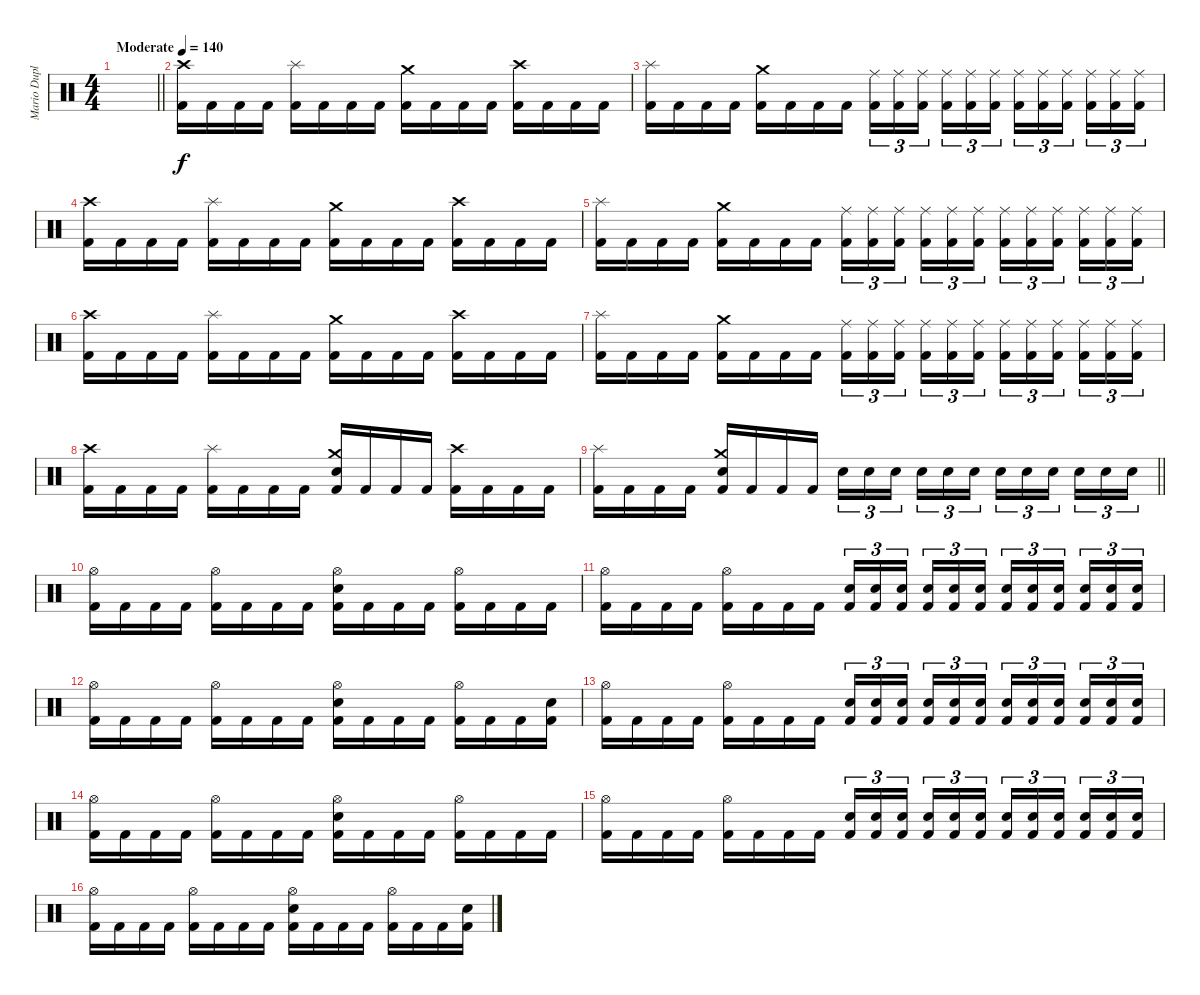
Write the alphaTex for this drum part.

\track ("Mario Duplantier" "Mario Dupl") {instrument percussion}
\staff {score}
\articulation defaults
\ts (4 4)
\tempo (140 "Moderate")
\clef neutral
\barLineRight lightlight
\ks c
|
\section ("" "")
("Crash high (hit)" "Kick (hit) 2").16 "Kick (hit) 2".16 "Kick (hit) 2".16 "Kick (hit) 2".16 ("Splash (hit)" "Kick (hit) 2").16 "Kick (hit) 2".16 "Kick (hit) 2".16 "Kick (hit) 2".16 ("Crash medium (hit)" "Kick (hit) 2").16 "Kick (hit) 2".16 "Kick (hit) 2".16 "Kick (hit) 2".16 ("Crash high (hit)" "Kick (hit) 2").16 "Kick (hit) 2".16 "Kick (hit) 2".16 "Kick (hit) 2".16 |
("Splash (hit)" "Kick (hit) 2").16 "Kick (hit) 2".16 "Kick (hit) 2".16 "Kick (hit) 2".16 ("Crash medium (hit)" "Kick (hit) 2").16 "Kick (hit) 2".16 "Kick (hit) 2".16 "Kick (hit) 2".16 ("Ride (middle)" "Kick (hit) 2").16{tu (3 2)} ("Ride (middle)" "Kick (hit) 2").16{tu (3 2)} ("Ride (middle)" "Kick (hit) 2").16{tu (3 2) beam splitsecondary} ("Ride (middle)" "Kick (hit) 2").16{tu (3 2)} ("Ride (middle)" "Kick (hit) 2").16{tu (3 2)} ("Ride (middle)" "Kick (hit) 2").16{tu (3 2)} ("Ride (middle)" "Kick (hit) 2").16{tu (3 2)} ("Ride (middle)" "Kick (hit) 2").16{tu (3 2)} ("Ride (middle)" "Kick (hit) 2").16{tu (3 2) beam splitsecondary} ("Ride (middle)" "Kick (hit) 2").16{tu (3 2)} ("Ride (middle)" "Kick (hit) 2").16{tu (3 2)} ("Ride (middle)" "Kick (hit) 2").16{tu (3 2)} |
("Crash high (hit)" "Kick (hit) 2").16 "Kick (hit) 2".16 "Kick (hit) 2".16 "Kick (hit) 2".16 ("Splash (hit)" "Kick (hit) 2").16 "Kick (hit) 2".16 "Kick (hit) 2".16 "Kick (hit) 2".16 ("Crash medium (hit)" "Kick (hit) 2").16 "Kick (hit) 2".16 "Kick (hit) 2".16 "Kick (hit) 2".16 ("Crash high (hit)" "Kick (hit) 2").16 "Kick (hit) 2".16 "Kick (hit) 2".16 "Kick (hit) 2".16 |
("Splash (hit)" "Kick (hit) 2").16 "Kick (hit) 2".16 "Kick (hit) 2".16 "Kick (hit) 2".16 ("Crash medium (hit)" "Kick (hit) 2").16 "Kick (hit) 2".16 "Kick (hit) 2".16 "Kick (hit) 2".16 ("Ride (middle)" "Kick (hit) 2").16{tu (3 2)} ("Ride (middle)" "Kick (hit) 2").16{tu (3 2)} ("Ride (middle)" "Kick (hit) 2").16{tu (3 2) beam splitsecondary} ("Ride (middle)" "Kick (hit) 2").16{tu (3 2)} ("Ride (middle)" "Kick (hit) 2").16{tu (3 2)} ("Ride (middle)" "Kick (hit) 2").16{tu (3 2)} ("Ride (middle)" "Kick (hit) 2").16{tu (3 2)} ("Ride (middle)" "Kick (hit) 2").16{tu (3 2)} ("Ride (middle)" "Kick (hit) 2").16{tu (3 2) beam splitsecondary} ("Ride (middle)" "Kick (hit) 2").16{tu (3 2)} ("Ride (middle)" "Kick (hit) 2").16{tu (3 2)} ("Ride (middle)" "Kick (hit) 2").16{tu (3 2)} |
("Crash high (hit)" "Kick (hit) 2").16 "Kick (hit) 2".16 "Kick (hit) 2".16 "Kick (hit) 2".16 ("Splash (hit)" "Kick (hit) 2").16 "Kick (hit) 2".16 "Kick (hit) 2".16 "Kick (hit) 2".16 ("Crash medium (hit)" "Kick (hit) 2").16 "Kick (hit) 2".16 "Kick (hit) 2".16 "Kick (hit) 2".16 ("Crash high (hit)" "Kick (hit) 2").16 "Kick (hit) 2".16 "Kick (hit) 2".16 "Kick (hit) 2".16 |
("Splash (hit)" "Kick (hit) 2").16 "Kick (hit) 2".16 "Kick (hit) 2".16 "Kick (hit) 2".16 ("Crash medium (hit)" "Kick (hit) 2").16 "Kick (hit) 2".16 "Kick (hit) 2".16 "Kick (hit) 2".16 ("Ride (middle)" "Kick (hit) 2").16{tu (3 2)} ("Ride (middle)" "Kick (hit) 2").16{tu (3 2)} ("Ride (middle)" "Kick (hit) 2").16{tu (3 2) beam splitsecondary} ("Ride (middle)" "Kick (hit) 2").16{tu (3 2)} ("Ride (middle)" "Kick (hit) 2").16{tu (3 2)} ("Ride (middle)" "Kick (hit) 2").16{tu (3 2)} ("Ride (middle)" "Kick (hit) 2").16{tu (3 2)} ("Ride (middle)" "Kick (hit) 2").16{tu (3 2)} ("Ride (middle)" "Kick (hit) 2").16{tu (3 2) beam splitsecondary} ("Ride (middle)" "Kick (hit) 2").16{tu (3 2)} ("Ride (middle)" "Kick (hit) 2").16{tu (3 2)} ("Ride (middle)" "Kick (hit) 2").16{tu (3 2)} |
("Crash high (hit)" "Kick (hit) 2").16 "Kick (hit) 2".16 "Kick (hit) 2".16 "Kick (hit) 2".16 ("Splash (hit)" "Kick (hit) 2").16 "Kick (hit) 2".16 "Kick (hit) 2".16 "Kick (hit) 2".16 ("Crash medium (hit)" "Electric Snare (hit)" "Kick (hit) 2").16 "Kick (hit) 2".16 "Kick (hit) 2".16 "Kick (hit) 2".16 ("Crash high (hit)" "Kick (hit) 2").16 "Kick (hit) 2".16 "Kick (hit) 2".16 "Kick (hit) 2".16 |
\barLineRight lightlight
("Splash (hit)" "Kick (hit) 2").16 "Kick (hit) 2".16 "Kick (hit) 2".16 "Kick (hit) 2".16 ("Crash medium (hit)" "Electric Snare (hit)" "Kick (hit) 2").16 "Kick (hit) 2".16 "Kick (hit) 2".16 "Kick (hit) 2".16 "Snare (hit) 2".16{tu (3 2)} "Snare (hit) 2".16{tu (3 2)} "Snare (hit) 2".16{tu (3 2) beam splitsecondary} "Snare (hit) 2".16{tu (3 2)} "Snare (hit) 2".16{tu (3 2)} "Snare (hit) 2".16{tu (3 2)} "Snare (hit) 2".16{tu (3 2)} "Snare (hit) 2".16{tu (3 2)} "Snare (hit) 2".16{tu (3 2) beam splitsecondary} "Snare (hit) 2".16{tu (3 2)} "Snare (hit) 2".16{tu (3 2)} "Snare (hit) 2".16{tu (3 2)} |
\section ("" "")
("Hi-Hat (open)" "Kick (hit) 2").16 "Kick (hit) 2".16 "Kick (hit) 2".16 "Kick (hit) 2".16 ("Hi-Hat (open)" "Kick (hit) 2").16 "Kick (hit) 2".16 "Kick (hit) 2".16 "Kick (hit) 2".16 ("Hi-Hat (open)" "Electric Snare (hit)" "Kick (hit) 2").16 "Kick (hit) 2".16 "Kick (hit) 2".16 "Kick (hit) 2".16 ("Hi-Hat (open)" "Kick (hit) 2").16 "Kick (hit) 2".16 "Kick (hit) 2".16 "Kick (hit) 2".16 |
("Hi-Hat (open)" "Kick (hit) 2").16 "Kick (hit) 2".16 "Kick (hit) 2".16 "Kick (hit) 2".16 ("Hi-Hat (open)" "Kick (hit) 2").16 "Kick (hit) 2".16 "Kick (hit) 2".16 "Kick (hit) 2".16 ("Snare (hit) 2" "Kick (hit) 2").16{tu (3 2)} ("Snare (hit) 2" "Kick (hit) 2").16{tu (3 2)} ("Snare (hit) 2" "Kick (hit) 2").16{tu (3 2) beam splitsecondary} ("Snare (hit) 2" "Kick (hit) 2").16{tu (3 2)} ("Snare (hit) 2" "Kick (hit) 2").16{tu (3 2)} ("Snare (hit) 2" "Kick (hit) 2").16{tu (3 2)} ("Snare (hit) 2" "Kick (hit) 2").16{tu (3 2)} ("Snare (hit) 2" "Kick (hit) 2").16{tu (3 2)} ("Snare (hit) 2" "Kick (hit) 2").16{tu (3 2) beam splitsecondary} ("Snare (hit) 2" "Kick (hit) 2").16{tu (3 2)} ("Snare (hit) 2" "Kick (hit) 2").16{tu (3 2)} ("Snare (hit) 2" "Kick (hit) 2").16{tu (3 2)} |
("Hi-Hat (open)" "Kick (hit) 2").16 "Kick (hit) 2".16 "Kick (hit) 2".16 "Kick (hit) 2".16 ("Hi-Hat (open)" "Kick (hit) 2").16 "Kick (hit) 2".16 "Kick (hit) 2".16 "Kick (hit) 2".16 ("Hi-Hat (open)" "Electric Snare (hit)" "Kick (hit) 2").16 "Kick (hit) 2".16 "Kick (hit) 2".16 "Kick (hit) 2".16 ("Hi-Hat (open)" "Kick (hit) 2").16 "Kick (hit) 2".16 "Kick (hit) 2".16 ("Electric Snare (hit)" "Kick (hit) 2").16 |
("Hi-Hat (open)" "Kick (hit) 2").16 "Kick (hit) 2".16 "Kick (hit) 2".16 "Kick (hit) 2".16 ("Hi-Hat (open)" "Kick (hit) 2").16 "Kick (hit) 2".16 "Kick (hit) 2".16 "Kick (hit) 2".16 ("Snare (hit) 2" "Kick (hit) 2").16{tu (3 2)} ("Snare (hit) 2" "Kick (hit) 2").16{tu (3 2)} ("Snare (hit) 2" "Kick (hit) 2").16{tu (3 2) beam splitsecondary} ("Snare (hit) 2" "Kick (hit) 2").16{tu (3 2)} ("Snare (hit) 2" "Kick (hit) 2").16{tu (3 2)} ("Snare (hit) 2" "Kick (hit) 2").16{tu (3 2)} ("Snare (hit) 2" "Kick (hit) 2").16{tu (3 2)} ("Snare (hit) 2" "Kick (hit) 2").16{tu (3 2)} ("Snare (hit) 2" "Kick (hit) 2").16{tu (3 2) beam splitsecondary} ("Snare (hit) 2" "Kick (hit) 2").16{tu (3 2)} ("Snare (hit) 2" "Kick (hit) 2").16{tu (3 2)} ("Snare (hit) 2" "Kick (hit) 2").16{tu (3 2)} |
("Hi-Hat (open)" "Kick (hit) 2").16 "Kick (hit) 2".16 "Kick (hit) 2".16 "Kick (hit) 2".16 ("Hi-Hat (open)" "Kick (hit) 2").16 "Kick (hit) 2".16 "Kick (hit) 2".16 "Kick (hit) 2".16 ("Hi-Hat (open)" "Electric Snare (hit)" "Kick (hit) 2").16 "Kick (hit) 2".16 "Kick (hit) 2".16 "Kick (hit) 2".16 ("Hi-Hat (open)" "Kick (hit) 2").16 "Kick (hit) 2".16 "Kick (hit) 2".16 "Kick (hit) 2".16 |
("Hi-Hat (open)" "Kick (hit) 2").16 "Kick (hit) 2".16 "Kick (hit) 2".16 "Kick (hit) 2".16 ("Hi-Hat (open)" "Kick (hit) 2").16 "Kick (hit) 2".16 "Kick (hit) 2".16 "Kick (hit) 2".16 ("Snare (hit) 2" "Kick (hit) 2").16{tu (3 2)} ("Snare (hit) 2" "Kick (hit) 2").16{tu (3 2)} ("Snare (hit) 2" "Kick (hit) 2").16{tu (3 2) beam splitsecondary} ("Snare (hit) 2" "Kick (hit) 2").16{tu (3 2)} ("Snare (hit) 2" "Kick (hit) 2").16{tu (3 2)} ("Snare (hit) 2" "Kick (hit) 2").16{tu (3 2)} ("Snare (hit) 2" "Kick (hit) 2").16{tu (3 2)} ("Snare (hit) 2" "Kick (hit) 2").16{tu (3 2)} ("Snare (hit) 2" "Kick (hit) 2").16{tu (3 2) beam splitsecondary} ("Snare (hit) 2" "Kick (hit) 2").16{tu (3 2)} ("Snare (hit) 2" "Kick (hit) 2").16{tu (3 2)} ("Snare (hit) 2" "Kick (hit) 2").16{tu (3 2)} |
("Hi-Hat (open)" "Kick (hit) 2").16 "Kick (hit) 2".16 "Kick (hit) 2".16 "Kick (hit) 2".16 ("Hi-Hat (open)" "Kick (hit) 2").16 "Kick (hit) 2".16 "Kick (hit) 2".16 "Kick (hit) 2".16 ("Hi-Hat (open)" "Electric Snare (hit)" "Kick (hit) 2").16 "Kick (hit) 2".16 "Kick (hit) 2".16 "Kick (hit) 2".16 ("Hi-Hat (open)" "Kick (hit) 2").16 "Kick (hit) 2".16 "Kick (hit) 2".16 ("Electric Snare (hit)" "Kick (hit) 2").16
